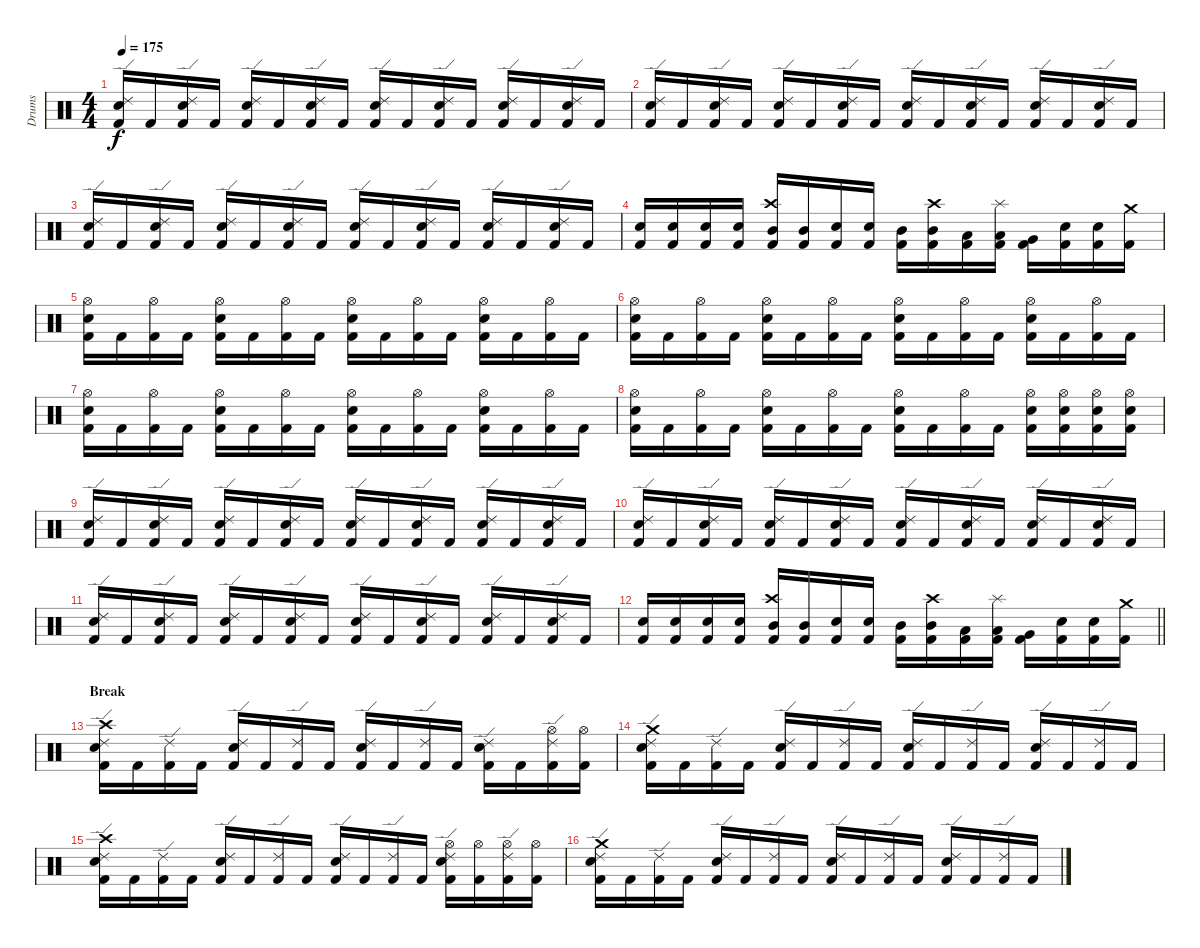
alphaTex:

\track ("Drums" "Drums") {instrument percussion}
\staff {score}
\articulation defaults
\ts (4 4)
\tempo 175
\clef neutral
\ks c
("Ride (edge) 2" "Snare (hit) 2" "Kick (hit) 2").16{dy f} "Kick (hit) 2".16 ("Ride (edge) 2" "Snare (hit) 2" "Kick (hit) 2").16 "Kick (hit) 2".16 ("Ride (edge) 2" "Snare (hit) 2" "Kick (hit) 2").16 "Kick (hit) 2".16 ("Ride (edge) 2" "Snare (hit) 2" "Kick (hit) 2").16 "Kick (hit) 2".16 ("Ride (edge) 2" "Snare (hit) 2" "Kick (hit) 2").16 "Kick (hit) 2".16 ("Ride (edge) 2" "Snare (hit) 2" "Kick (hit) 2").16 "Kick (hit) 2".16 ("Ride (edge) 2" "Snare (hit) 2" "Kick (hit) 2").16 "Kick (hit) 2".16 ("Ride (edge) 2" "Snare (hit) 2" "Kick (hit) 2").16 "Kick (hit) 2".16 |
("Ride (edge) 2" "Snare (hit) 2" "Kick (hit) 2").16 "Kick (hit) 2".16 ("Ride (edge) 2" "Snare (hit) 2" "Kick (hit) 2").16 "Kick (hit) 2".16 ("Ride (edge) 2" "Snare (hit) 2" "Kick (hit) 2").16 "Kick (hit) 2".16 ("Ride (edge) 2" "Snare (hit) 2" "Kick (hit) 2").16 "Kick (hit) 2".16 ("Ride (edge) 2" "Snare (hit) 2" "Kick (hit) 2").16 "Kick (hit) 2".16 ("Ride (edge) 2" "Snare (hit) 2" "Kick (hit) 2").16 "Kick (hit) 2".16 ("Ride (edge) 2" "Snare (hit) 2" "Kick (hit) 2").16 "Kick (hit) 2".16 ("Ride (edge) 2" "Snare (hit) 2" "Kick (hit) 2").16 "Kick (hit) 2".16 |
("Ride (edge) 2" "Snare (hit) 2" "Kick (hit) 2").16 "Kick (hit) 2".16 ("Ride (edge) 2" "Snare (hit) 2" "Kick (hit) 2").16 "Kick (hit) 2".16 ("Ride (edge) 2" "Snare (hit) 2" "Kick (hit) 2").16 "Kick (hit) 2".16 ("Ride (edge) 2" "Snare (hit) 2" "Kick (hit) 2").16 "Kick (hit) 2".16 ("Ride (edge) 2" "Snare (hit) 2" "Kick (hit) 2").16 "Kick (hit) 2".16 ("Ride (edge) 2" "Snare (hit) 2" "Kick (hit) 2").16 "Kick (hit) 2".16 ("Ride (edge) 2" "Snare (hit) 2" "Kick (hit) 2").16 "Kick (hit) 2".16 ("Ride (edge) 2" "Snare (hit) 2" "Kick (hit) 2").16 "Kick (hit) 2".16 |
("Snare (hit) 2" "Kick (hit) 2").16 ("Snare (hit) 2" "Kick (hit) 2").16 ("Snare (hit) 2" "Kick (hit) 2").16 ("Snare (hit) 2" "Kick (hit) 2").16 ("Crash high (hit)" "Mid Tom (hit)" "Kick (hit) 2").16 ("Mid Tom (hit)" "Kick (hit) 2").16 ("Snare (hit) 2" "Kick (hit) 2").16 ("Snare (hit) 2" "Kick (hit) 2").16 ("Mid Tom (hit)" "Kick (hit) 2").16 ("Crash high (hit)" "Mid Tom (hit)" "Kick (hit) 2").16 ("Low Tom (hit)" "Kick (hit) 2").16 ("Splash (hit)" "Low Tom (hit)" "Kick (hit) 2").16 ("Very Low Tom (hit)" "Kick (hit) 2").16 ("Snare (hit) 2" "Kick (hit) 2").16 ("Snare (hit) 2" "Kick (hit) 2").16 ("Crash medium (hit)" "Kick (hit) 2").16 |
("Hi-Hat (open)" "Snare (hit) 2" "Kick (hit) 2").16 "Kick (hit) 2".16 ("Hi-Hat (open)" "Kick (hit) 2").16 "Kick (hit) 2".16 ("Hi-Hat (open)" "Snare (hit) 2" "Kick (hit) 2").16 "Kick (hit) 2".16 ("Hi-Hat (open)" "Kick (hit) 2").16 "Kick (hit) 2".16 ("Hi-Hat (open)" "Snare (hit) 2" "Kick (hit) 2").16 "Kick (hit) 2".16 ("Hi-Hat (open)" "Kick (hit) 2").16 "Kick (hit) 2".16 ("Hi-Hat (open)" "Snare (hit) 2" "Kick (hit) 2").16 "Kick (hit) 2".16 ("Hi-Hat (open)" "Kick (hit) 2").16 "Kick (hit) 2".16 |
("Hi-Hat (open)" "Snare (hit) 2" "Kick (hit) 2").16 "Kick (hit) 2".16 ("Hi-Hat (open)" "Kick (hit) 2").16 "Kick (hit) 2".16 ("Hi-Hat (open)" "Snare (hit) 2" "Kick (hit) 2").16 "Kick (hit) 2".16 ("Hi-Hat (open)" "Kick (hit) 2").16 "Kick (hit) 2".16 ("Hi-Hat (open)" "Snare (hit) 2" "Kick (hit) 2").16 "Kick (hit) 2".16 ("Hi-Hat (open)" "Kick (hit) 2").16 "Kick (hit) 2".16 ("Hi-Hat (open)" "Snare (hit) 2" "Kick (hit) 2").16 "Kick (hit) 2".16 ("Hi-Hat (open)" "Kick (hit) 2").16 "Kick (hit) 2".16 |
("Hi-Hat (open)" "Snare (hit) 2" "Kick (hit) 2").16 "Kick (hit) 2".16 ("Hi-Hat (open)" "Kick (hit) 2").16 "Kick (hit) 2".16 ("Hi-Hat (open)" "Snare (hit) 2" "Kick (hit) 2").16 "Kick (hit) 2".16 ("Hi-Hat (open)" "Kick (hit) 2").16 "Kick (hit) 2".16 ("Hi-Hat (open)" "Snare (hit) 2" "Kick (hit) 2").16 "Kick (hit) 2".16 ("Hi-Hat (open)" "Kick (hit) 2").16 "Kick (hit) 2".16 ("Hi-Hat (open)" "Snare (hit) 2" "Kick (hit) 2").16 "Kick (hit) 2".16 ("Hi-Hat (open)" "Kick (hit) 2").16 "Kick (hit) 2".16 |
("Hi-Hat (open)" "Snare (hit) 2" "Kick (hit) 2").16 "Kick (hit) 2".16 ("Hi-Hat (open)" "Kick (hit) 2").16 "Kick (hit) 2".16 ("Hi-Hat (open)" "Snare (hit) 2" "Kick (hit) 2").16 "Kick (hit) 2".16 ("Hi-Hat (open)" "Kick (hit) 2").16 "Kick (hit) 2".16 ("Hi-Hat (open)" "Snare (hit) 2" "Kick (hit) 2").16 "Kick (hit) 2".16 ("Hi-Hat (open)" "Kick (hit) 2").16 "Kick (hit) 2".16 ("Hi-Hat (open)" "Snare (hit) 2" "Kick (hit) 2").16 ("Hi-Hat (open)" "Snare (hit) 2" "Kick (hit) 2").16 ("Hi-Hat (open)" "Snare (hit) 2" "Kick (hit) 2").16 ("Hi-Hat (open)" "Snare (hit) 2" "Kick (hit) 2").16 |
("Ride (edge) 2" "Snare (hit) 2" "Kick (hit) 2").16 "Kick (hit) 2".16 ("Ride (edge) 2" "Snare (hit) 2" "Kick (hit) 2").16 "Kick (hit) 2".16 ("Ride (edge) 2" "Snare (hit) 2" "Kick (hit) 2").16 "Kick (hit) 2".16 ("Ride (edge) 2" "Snare (hit) 2" "Kick (hit) 2").16 "Kick (hit) 2".16 ("Ride (edge) 2" "Snare (hit) 2" "Kick (hit) 2").16 "Kick (hit) 2".16 ("Ride (edge) 2" "Snare (hit) 2" "Kick (hit) 2").16 "Kick (hit) 2".16 ("Ride (edge) 2" "Snare (hit) 2" "Kick (hit) 2").16 "Kick (hit) 2".16 ("Ride (edge) 2" "Snare (hit) 2" "Kick (hit) 2").16 "Kick (hit) 2".16 |
("Ride (edge) 2" "Snare (hit) 2" "Kick (hit) 2").16 "Kick (hit) 2".16 ("Ride (edge) 2" "Snare (hit) 2" "Kick (hit) 2").16 "Kick (hit) 2".16 ("Ride (edge) 2" "Snare (hit) 2" "Kick (hit) 2").16 "Kick (hit) 2".16 ("Ride (edge) 2" "Snare (hit) 2" "Kick (hit) 2").16 "Kick (hit) 2".16 ("Ride (edge) 2" "Snare (hit) 2" "Kick (hit) 2").16 "Kick (hit) 2".16 ("Ride (edge) 2" "Snare (hit) 2" "Kick (hit) 2").16 "Kick (hit) 2".16 ("Ride (edge) 2" "Snare (hit) 2" "Kick (hit) 2").16 "Kick (hit) 2".16 ("Ride (edge) 2" "Snare (hit) 2" "Kick (hit) 2").16 "Kick (hit) 2".16 |
("Ride (edge) 2" "Snare (hit) 2" "Kick (hit) 2").16 "Kick (hit) 2".16 ("Ride (edge) 2" "Snare (hit) 2" "Kick (hit) 2").16 "Kick (hit) 2".16 ("Ride (edge) 2" "Snare (hit) 2" "Kick (hit) 2").16 "Kick (hit) 2".16 ("Ride (edge) 2" "Snare (hit) 2" "Kick (hit) 2").16 "Kick (hit) 2".16 ("Ride (edge) 2" "Snare (hit) 2" "Kick (hit) 2").16 "Kick (hit) 2".16 ("Ride (edge) 2" "Snare (hit) 2" "Kick (hit) 2").16 "Kick (hit) 2".16 ("Ride (edge) 2" "Snare (hit) 2" "Kick (hit) 2").16 "Kick (hit) 2".16 ("Ride (edge) 2" "Snare (hit) 2" "Kick (hit) 2").16 "Kick (hit) 2".16 |
\barLineRight lightlight
("Snare (hit) 2" "Kick (hit) 2").16 ("Snare (hit) 2" "Kick (hit) 2").16 ("Snare (hit) 2" "Kick (hit) 2").16 ("Snare (hit) 2" "Kick (hit) 2").16 ("Crash high (hit)" "Mid Tom (hit)" "Kick (hit) 2").16 ("Mid Tom (hit)" "Kick (hit) 2").16 ("Snare (hit) 2" "Kick (hit) 2").16 ("Snare (hit) 2" "Kick (hit) 2").16 ("Mid Tom (hit)" "Kick (hit) 2").16 ("Crash high (hit)" "Mid Tom (hit)" "Kick (hit) 2").16 ("Low Tom (hit)" "Kick (hit) 2").16 ("Splash (hit)" "Low Tom (hit)" "Kick (hit) 2").16 ("Very Low Tom (hit)" "Kick (hit) 2").16 ("Snare (hit) 2" "Kick (hit) 2").16 ("Snare (hit) 2" "Kick (hit) 2").16 ("Crash medium (hit)" "Kick (hit) 2").16 |
\section ("" "Break")
("Ride (edge) 2" "Crash high (hit)" "Snare (hit) 2" "Kick (hit) 2").16 "Kick (hit) 2".16 ("Ride (edge) 2" "Kick (hit) 2").16 "Kick (hit) 2".16 ("Ride (edge) 2" "Snare (hit) 2" "Kick (hit) 2").16 "Kick (hit) 2".16 ("Ride (edge) 2" "Kick (hit) 2").16 "Kick (hit) 2".16 ("Ride (edge) 2" "Snare (hit) 2" "Kick (hit) 2").16 "Kick (hit) 2".16 ("Ride (edge) 2" "Kick (hit) 2").16 "Kick (hit) 2".16 ("Ride (edge) 2" "Snare (hit) 2" "Kick (hit) 2").16 "Kick (hit) 2".16 ("Ride (edge) 2" "Hi-Hat (open)" "Kick (hit) 2").16 ("Hi-Hat (open)" "Kick (hit) 2").16 |
("Ride (edge) 2" "Crash medium (hit)" "Snare (hit) 2" "Kick (hit) 2").16 "Kick (hit) 2".16 ("Ride (edge) 2" "Kick (hit) 2").16 "Kick (hit) 2".16 ("Ride (edge) 2" "Snare (hit) 2" "Kick (hit) 2").16 "Kick (hit) 2".16 ("Ride (edge) 2" "Kick (hit) 2").16 "Kick (hit) 2".16 ("Ride (edge) 2" "Snare (hit) 2" "Kick (hit) 2").16 "Kick (hit) 2".16 ("Ride (edge) 2" "Kick (hit) 2").16 "Kick (hit) 2".16 ("Ride (edge) 2" "Snare (hit) 2" "Kick (hit) 2").16 "Kick (hit) 2".16 ("Ride (edge) 2" "Kick (hit) 2").16 "Kick (hit) 2".16 |
("Ride (edge) 2" "Crash high (hit)" "Snare (hit) 2" "Kick (hit) 2").16 "Kick (hit) 2".16 ("Ride (edge) 2" "Kick (hit) 2").16 "Kick (hit) 2".16 ("Ride (edge) 2" "Snare (hit) 2" "Kick (hit) 2").16 "Kick (hit) 2".16 ("Ride (edge) 2" "Kick (hit) 2").16 "Kick (hit) 2".16 ("Ride (edge) 2" "Snare (hit) 2" "Kick (hit) 2").16 "Kick (hit) 2".16 ("Ride (edge) 2" "Kick (hit) 2").16 "Kick (hit) 2".16 ("Ride (edge) 2" "Hi-Hat (open)" "Snare (hit) 2" "Kick (hit) 2").16 ("Hi-Hat (open)" "Kick (hit) 2").16 ("Ride (edge) 2" "Hi-Hat (open)" "Kick (hit) 2").16 ("Hi-Hat (open)" "Kick (hit) 2").16 |
("Ride (edge) 2" "Crash medium (hit)" "Snare (hit) 2" "Kick (hit) 2").16 "Kick (hit) 2".16 ("Ride (edge) 2" "Kick (hit) 2").16 "Kick (hit) 2".16 ("Ride (edge) 2" "Snare (hit) 2" "Kick (hit) 2").16 "Kick (hit) 2".16 ("Ride (edge) 2" "Kick (hit) 2").16 "Kick (hit) 2".16 ("Ride (edge) 2" "Snare (hit) 2" "Kick (hit) 2").16 "Kick (hit) 2".16 ("Ride (edge) 2" "Kick (hit) 2").16 "Kick (hit) 2".16 ("Ride (edge) 2" "Snare (hit) 2" "Kick (hit) 2").16 "Kick (hit) 2".16 ("Ride (edge) 2" "Kick (hit) 2").16 "Kick (hit) 2".16
